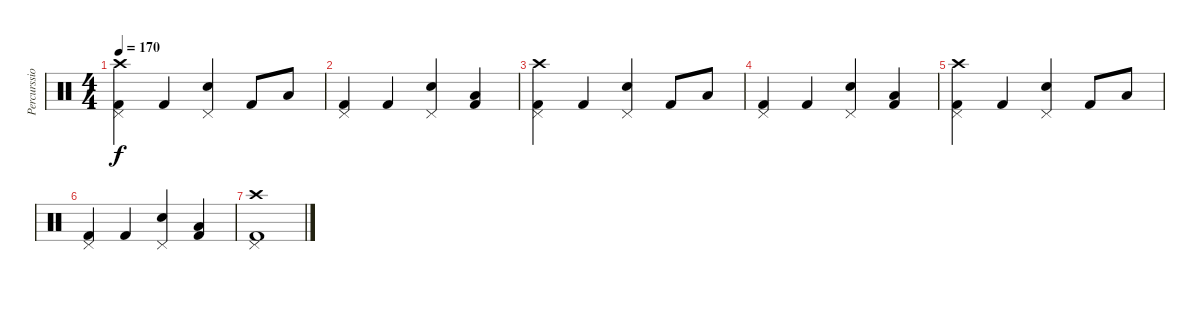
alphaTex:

\track ("Percurssion" "Percurssio") {instrument percussion}
\staff {score}
\articulation defaults
\ts (4 4)
\tempo 170
\clef neutral
\ks c
("Crash high (hit)" "Pedal Hi-Hat (hit)" "Kick (hit) 2").4{dy f} "Kick (hit) 2".4 ("Pedal Hi-Hat (hit)" "Electric Snare (hit)").4 "Kick (hit) 2".8 "Low Tom (hit)".8 |
("Pedal Hi-Hat (hit)" "Kick (hit) 2").4 "Kick (hit) 2".4 ("Pedal Hi-Hat (hit)" "Electric Snare (hit)").4 ("Low Tom (hit)" "Kick (hit) 2").4{bu 240} |
("Crash high (hit)" "Pedal Hi-Hat (hit)" "Kick (hit) 2").4 "Kick (hit) 2".4 ("Pedal Hi-Hat (hit)" "Electric Snare (hit)").4 "Kick (hit) 2".8 "Low Tom (hit)".8 |
("Pedal Hi-Hat (hit)" "Kick (hit) 2").4 "Kick (hit) 2".4 ("Pedal Hi-Hat (hit)" "Electric Snare (hit)").4 ("Low Tom (hit)" "Kick (hit) 2").4{bu 240} |
("Crash high (hit)" "Pedal Hi-Hat (hit)" "Kick (hit) 2").4 "Kick (hit) 2".4 ("Pedal Hi-Hat (hit)" "Electric Snare (hit)").4 "Kick (hit) 2".8 "Low Tom (hit)".8 |
("Pedal Hi-Hat (hit)" "Kick (hit) 2").4 "Kick (hit) 2".4 ("Pedal Hi-Hat (hit)" "Electric Snare (hit)").4 ("Low Tom (hit)" "Kick (hit) 2").4{bu 240} |
("Crash high (hit)" "Pedal Hi-Hat (hit)" "Kick (hit) 2").1
